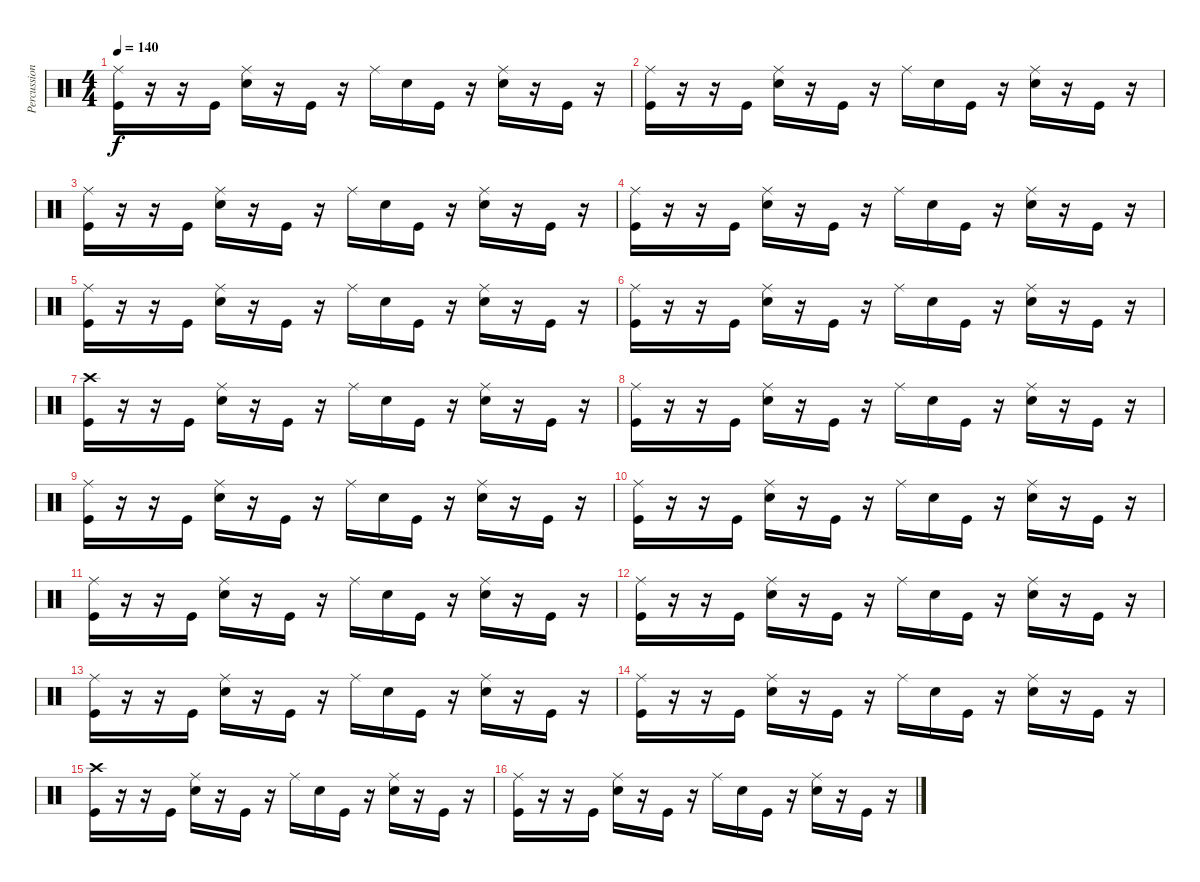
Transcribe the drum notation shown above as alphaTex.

\track ("Percussion" "Percussion") {instrument percussion}
\staff {score}
\articulation defaults
\ts (4 4)
\tempo 140
\clef neutral
\ks c
("Ride (middle)" "Kick (hit)").16{dy f} r.16 r.16 "Kick (hit)".16 ("Ride (middle)" "Electric Snare (hit)").16 r.16 "Kick (hit)".16 r.16 "Ride (middle)".16 "Electric Snare (hit)".16 "Kick (hit)".16 r.16 ("Ride (middle)" "Electric Snare (hit)").16 r.16 "Kick (hit)".16 r.16 |
("Ride (middle)" "Kick (hit)").16 r.16 r.16 "Kick (hit)".16 ("Ride (middle)" "Electric Snare (hit)").16 r.16 "Kick (hit)".16 r.16 "Ride (middle)".16 "Electric Snare (hit)".16 "Kick (hit)".16 r.16 ("Ride (middle)" "Electric Snare (hit)").16 r.16 "Kick (hit)".16 r.16 |
("Ride (middle)" "Kick (hit)").16 r.16 r.16 "Kick (hit)".16 ("Ride (middle)" "Electric Snare (hit)").16 r.16 "Kick (hit)".16 r.16 "Ride (middle)".16 "Electric Snare (hit)".16 "Kick (hit)".16 r.16 ("Ride (middle)" "Electric Snare (hit)").16 r.16 "Kick (hit)".16 r.16 |
("Ride (middle)" "Kick (hit)").16 r.16 r.16 "Kick (hit)".16 ("Ride (middle)" "Electric Snare (hit)").16 r.16 "Kick (hit)".16 r.16 "Ride (middle)".16 "Electric Snare (hit)".16 "Kick (hit)".16 r.16 ("Ride (middle)" "Electric Snare (hit)").16 r.16 "Kick (hit)".16 r.16 |
("Ride (middle)" "Kick (hit)").16 r.16 r.16 "Kick (hit)".16 ("Ride (middle)" "Electric Snare (hit)").16 r.16 "Kick (hit)".16 r.16 "Ride (middle)".16 "Electric Snare (hit)".16 "Kick (hit)".16 r.16 ("Ride (middle)" "Electric Snare (hit)").16 r.16 "Kick (hit)".16 r.16 |
("Ride (middle)" "Kick (hit)").16 r.16 r.16 "Kick (hit)".16 ("Ride (middle)" "Electric Snare (hit)").16 r.16 "Kick (hit)".16 r.16 "Ride (middle)".16 "Electric Snare (hit)".16 "Kick (hit)".16 r.16 ("Ride (middle)" "Electric Snare (hit)").16 r.16 "Kick (hit)".16 r.16 |
("Crash high (hit)" "Kick (hit)").16 r.16 r.16 "Kick (hit)".16 ("Ride (middle)" "Electric Snare (hit)").16 r.16 "Kick (hit)".16 r.16 "Ride (middle)".16 "Electric Snare (hit)".16 "Kick (hit)".16 r.16 ("Ride (middle)" "Electric Snare (hit)").16 r.16 "Kick (hit)".16 r.16 |
("Ride (middle)" "Kick (hit)").16 r.16 r.16 "Kick (hit)".16 ("Ride (middle)" "Electric Snare (hit)").16 r.16 "Kick (hit)".16 r.16 "Ride (middle)".16 "Electric Snare (hit)".16 "Kick (hit)".16 r.16 ("Ride (middle)" "Electric Snare (hit)").16 r.16 "Kick (hit)".16 r.16 |
("Ride (middle)" "Kick (hit)").16 r.16 r.16 "Kick (hit)".16 ("Ride (middle)" "Electric Snare (hit)").16 r.16 "Kick (hit)".16 r.16 "Ride (middle)".16 "Electric Snare (hit)".16 "Kick (hit)".16 r.16 ("Ride (middle)" "Electric Snare (hit)").16 r.16 "Kick (hit)".16 r.16 |
("Ride (middle)" "Kick (hit)").16 r.16 r.16 "Kick (hit)".16 ("Ride (middle)" "Electric Snare (hit)").16 r.16 "Kick (hit)".16 r.16 "Ride (middle)".16 "Electric Snare (hit)".16 "Kick (hit)".16 r.16 ("Ride (middle)" "Electric Snare (hit)").16 r.16 "Kick (hit)".16 r.16 |
("Ride (middle)" "Kick (hit)").16 r.16 r.16 "Kick (hit)".16 ("Ride (middle)" "Electric Snare (hit)").16 r.16 "Kick (hit)".16 r.16 "Ride (middle)".16 "Electric Snare (hit)".16 "Kick (hit)".16 r.16 ("Ride (middle)" "Electric Snare (hit)").16 r.16 "Kick (hit)".16 r.16 |
("Ride (middle)" "Kick (hit)").16 r.16 r.16 "Kick (hit)".16 ("Ride (middle)" "Electric Snare (hit)").16 r.16 "Kick (hit)".16 r.16 "Ride (middle)".16 "Electric Snare (hit)".16 "Kick (hit)".16 r.16 ("Ride (middle)" "Electric Snare (hit)").16 r.16 "Kick (hit)".16 r.16 |
("Ride (middle)" "Kick (hit)").16 r.16 r.16 "Kick (hit)".16 ("Ride (middle)" "Electric Snare (hit)").16 r.16 "Kick (hit)".16 r.16 "Ride (middle)".16 "Electric Snare (hit)".16 "Kick (hit)".16 r.16 ("Ride (middle)" "Electric Snare (hit)").16 r.16 "Kick (hit)".16 r.16 |
("Ride (middle)" "Kick (hit)").16 r.16 r.16 "Kick (hit)".16 ("Ride (middle)" "Electric Snare (hit)").16 r.16 "Kick (hit)".16 r.16 "Ride (middle)".16 "Electric Snare (hit)".16 "Kick (hit)".16 r.16 ("Ride (middle)" "Electric Snare (hit)").16 r.16 "Kick (hit)".16 r.16 |
("Crash high (hit)" "Kick (hit)").16 r.16 r.16 "Kick (hit)".16 ("Ride (middle)" "Electric Snare (hit)").16 r.16 "Kick (hit)".16 r.16 "Ride (middle)".16 "Electric Snare (hit)".16 "Kick (hit)".16 r.16 ("Ride (middle)" "Electric Snare (hit)").16 r.16 "Kick (hit)".16 r.16 |
("Ride (middle)" "Kick (hit)").16 r.16 r.16 "Kick (hit)".16 ("Ride (middle)" "Electric Snare (hit)").16 r.16 "Kick (hit)".16 r.16 "Ride (middle)".16 "Electric Snare (hit)".16 "Kick (hit)".16 r.16 ("Ride (middle)" "Electric Snare (hit)").16 r.16 "Kick (hit)".16 r.16
